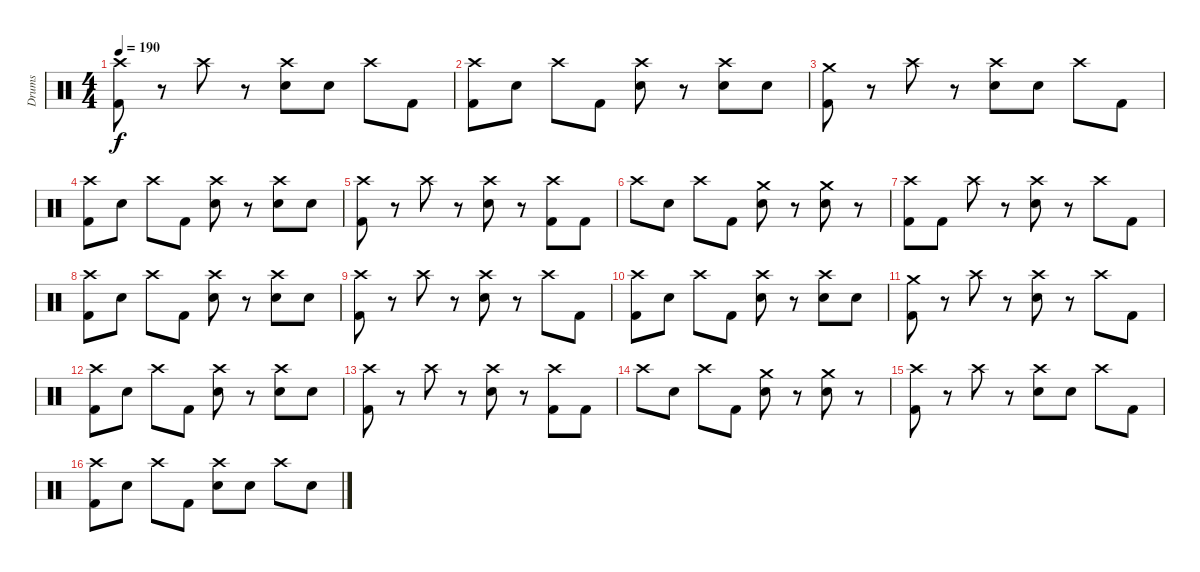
\track ("Drums" "Drums") {instrument percussion}
\staff {score}
\articulation defaults
\ts (4 4)
\tempo 190
\clef neutral
\ks c
("Crash high (hit)" "Kick (hit) 2").8{dy f} r.8 "Crash high (hit)".8 r.8 ("Crash high (hit)" "Electric Snare (hit)").8 "Electric Snare (hit)".8 "Crash high (hit)".8 "Kick (hit) 2".8 |
("Crash high (hit)" "Kick (hit) 2").8 "Electric Snare (hit)".8 "Crash high (hit)".8 "Kick (hit) 2".8 ("Crash high (hit)" "Electric Snare (hit)").8 r.8 ("Crash high (hit)" "Electric Snare (hit)").8 "Electric Snare (hit)".8 |
("Crash medium (hit)" "Kick (hit) 2").8 r.8 "Crash high (hit)".8 r.8 ("Crash high (hit)" "Electric Snare (hit)").8 "Electric Snare (hit)".8 "Crash high (hit)".8 "Kick (hit) 2".8 |
("Crash high (hit)" "Kick (hit) 2").8 "Electric Snare (hit)".8 "Crash high (hit)".8 "Kick (hit) 2".8 ("Crash high (hit)" "Electric Snare (hit)").8 r.8 ("Crash high (hit)" "Electric Snare (hit)").8 "Electric Snare (hit)".8 |
("Crash high (hit)" "Kick (hit) 2").8 r.8 "Crash high (hit)".8 r.8 ("Crash high (hit)" "Electric Snare (hit)").8 r.8 ("Crash high (hit)" "Kick (hit) 2").8 "Kick (hit) 2".8 |
"Crash high (hit)".8 "Electric Snare (hit)".8 "Crash high (hit)".8 "Kick (hit) 2".8 ("Crash medium (hit)" "Electric Snare (hit)").8 r.8 ("Crash medium (hit)" "Electric Snare (hit)").8 r.8 |
("Crash high (hit)" "Kick (hit) 2").8 "Kick (hit) 2".8 "Crash high (hit)".8 r.8 ("Crash high (hit)" "Electric Snare (hit)").8 r.8 "Crash high (hit)".8 "Kick (hit) 2".8 |
("Crash high (hit)" "Kick (hit) 2").8 "Electric Snare (hit)".8 "Crash high (hit)".8 "Kick (hit) 2".8 ("Crash high (hit)" "Electric Snare (hit)").8 r.8 ("Crash high (hit)" "Electric Snare (hit)").8 "Electric Snare (hit)".8 |
("Crash high (hit)" "Kick (hit) 2").8 r.8 "Crash high (hit)".8 r.8 ("Crash high (hit)" "Electric Snare (hit)").8 r.8 "Crash high (hit)".8 "Kick (hit) 2".8 |
("Crash high (hit)" "Kick (hit) 2").8 "Electric Snare (hit)".8 "Crash high (hit)".8 "Kick (hit) 2".8 ("Crash high (hit)" "Electric Snare (hit)").8 r.8 ("Crash high (hit)" "Electric Snare (hit)").8 "Electric Snare (hit)".8 |
("Crash medium (hit)" "Kick (hit) 2").8 r.8 "Crash high (hit)".8 r.8 ("Crash high (hit)" "Electric Snare (hit)").8 r.8 "Crash high (hit)".8 "Kick (hit) 2".8 |
("Crash high (hit)" "Kick (hit) 2").8 "Electric Snare (hit)".8 "Crash high (hit)".8 "Kick (hit) 2".8 ("Crash high (hit)" "Electric Snare (hit)").8 r.8 ("Crash high (hit)" "Electric Snare (hit)").8 "Electric Snare (hit)".8 |
("Crash high (hit)" "Kick (hit) 2").8 r.8 "Crash high (hit)".8 r.8 ("Crash high (hit)" "Electric Snare (hit)").8 r.8 ("Crash high (hit)" "Kick (hit) 2").8 "Kick (hit) 2".8 |
"Crash high (hit)".8 "Electric Snare (hit)".8 "Crash high (hit)".8 "Kick (hit) 2".8 ("Crash medium (hit)" "Electric Snare (hit)").8 r.8 ("Crash medium (hit)" "Electric Snare (hit)").8 r.8 |
("Crash high (hit)" "Kick (hit) 2").8 r.8 "Crash high (hit)".8 r.8 ("Crash high (hit)" "Electric Snare (hit)").8 "Electric Snare (hit)".8 "Crash high (hit)".8 "Kick (hit) 2".8 |
("Crash high (hit)" "Kick (hit) 2").8 "Electric Snare (hit)".8 "Crash high (hit)".8 "Kick (hit) 2".8 ("Crash high (hit)" "Electric Snare (hit)").8 "Electric Snare (hit)".8 "Crash high (hit)".8 "Electric Snare (hit)".8
